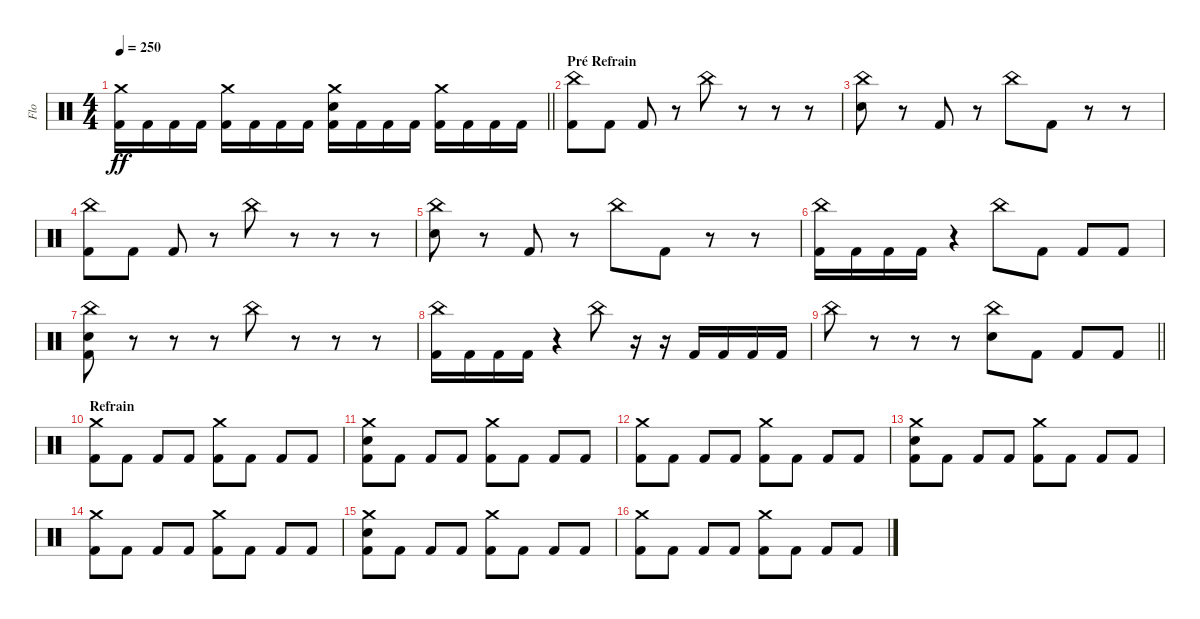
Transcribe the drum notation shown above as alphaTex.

\track ("Flo" "Flo") {instrument percussion}
\staff {score}
\articulation defaults
\ts (4 4)
\tempo 250
\clef neutral
\barLineRight lightlight
\ks c
("Crash medium (hit)" "Kick (hit) 2").16{dy ff} "Kick (hit) 2".16 "Kick (hit) 2".16 "Kick (hit) 2".16 ("Crash medium (hit)" "Kick (hit) 2").16 "Kick (hit) 2".16 "Kick (hit) 2".16 "Kick (hit) 2".16 ("Crash medium (hit)" "Electric Snare (hit)" "Kick (hit) 2").16 "Kick (hit) 2".16 "Kick (hit) 2".16 "Kick (hit) 2".16 ("Crash medium (hit)" "Kick (hit) 2").16 "Kick (hit) 2".16 "Kick (hit) 2".16 "Kick (hit) 2".16 |
\section ("" "Pré Refrain")
("China (hit)" "Kick (hit) 2").8 "Kick (hit) 2".8 "Kick (hit) 2".8 r.8 "China (hit)".8 r.8 r.8 r.8 |
("China (hit)" "Electric Snare (hit)").8 r.8 "Kick (hit) 2".8 r.8 "China (hit)".8 "Kick (hit) 2".8 r.8 r.8 |
("China (hit)" "Kick (hit) 2").8 "Kick (hit) 2".8 "Kick (hit) 2".8 r.8 "China (hit)".8 r.8 r.8 r.8 |
("China (hit)" "Electric Snare (hit)").8 r.8 "Kick (hit) 2".8 r.8 "China (hit)".8 "Kick (hit) 2".8 r.8 r.8 |
("China (hit)" "Kick (hit) 2").16 "Kick (hit) 2".16 "Kick (hit) 2".16 "Kick (hit) 2".16 r.4 "China (hit)".8 "Kick (hit) 2".8 "Kick (hit) 2".8 "Kick (hit) 2".8 |
("China (hit)" "Electric Snare (hit)" "Kick (hit) 2").8 r.8 r.8 r.8 "China (hit)".8 r.8 r.8 r.8 |
("China (hit)" "Kick (hit) 2").16 "Kick (hit) 2".16 "Kick (hit) 2".16 "Kick (hit) 2".16 r.4 "China (hit)".8 r.16 r.16 "Kick (hit) 2".16 "Kick (hit) 2".16 "Kick (hit) 2".16 "Kick (hit) 2".16 |
\barLineRight lightlight "China (hit)".8
r.8 r.8 r.8 ("China (hit)" "Electric Snare (hit)").8 "Kick (hit) 2".8 "Kick (hit) 2".8 "Kick (hit) 2".8 |
\section ("" "Refrain")
("Crash medium (hit)" "Kick (hit) 2").8 "Kick (hit) 2".8 "Kick (hit) 2".8 "Kick (hit) 2".8 ("Crash medium (hit)" "Kick (hit) 2").8 "Kick (hit) 2".8 "Kick (hit) 2".8 "Kick (hit) 2".8 |
("Crash medium (hit)" "Electric Snare (hit)" "Kick (hit) 2").8 "Kick (hit) 2".8 "Kick (hit) 2".8 "Kick (hit) 2".8 ("Crash medium (hit)" "Kick (hit) 2").8 "Kick (hit) 2".8 "Kick (hit) 2".8 "Kick (hit) 2".8 |
("Crash medium (hit)" "Kick (hit) 2").8 "Kick (hit) 2".8 "Kick (hit) 2".8 "Kick (hit) 2".8 ("Crash medium (hit)" "Kick (hit) 2").8 "Kick (hit) 2".8 "Kick (hit) 2".8 "Kick (hit) 2".8 |
("Crash medium (hit)" "Electric Snare (hit)" "Kick (hit) 2").8 "Kick (hit) 2".8 "Kick (hit) 2".8 "Kick (hit) 2".8 ("Crash medium (hit)" "Kick (hit) 2").8 "Kick (hit) 2".8 "Kick (hit) 2".8 "Kick (hit) 2".8 |
("Crash medium (hit)" "Kick (hit) 2").8 "Kick (hit) 2".8 "Kick (hit) 2".8 "Kick (hit) 2".8 ("Crash medium (hit)" "Kick (hit) 2").8 "Kick (hit) 2".8 "Kick (hit) 2".8 "Kick (hit) 2".8 |
("Crash medium (hit)" "Electric Snare (hit)" "Kick (hit) 2").8 "Kick (hit) 2".8 "Kick (hit) 2".8 "Kick (hit) 2".8 ("Crash medium (hit)" "Kick (hit) 2").8 "Kick (hit) 2".8 "Kick (hit) 2".8 "Kick (hit) 2".8 |
("Crash medium (hit)" "Kick (hit) 2").8 "Kick (hit) 2".8 "Kick (hit) 2".8 "Kick (hit) 2".8 ("Crash medium (hit)" "Kick (hit) 2").8 "Kick (hit) 2".8 "Kick (hit) 2".8 "Kick (hit) 2".8
